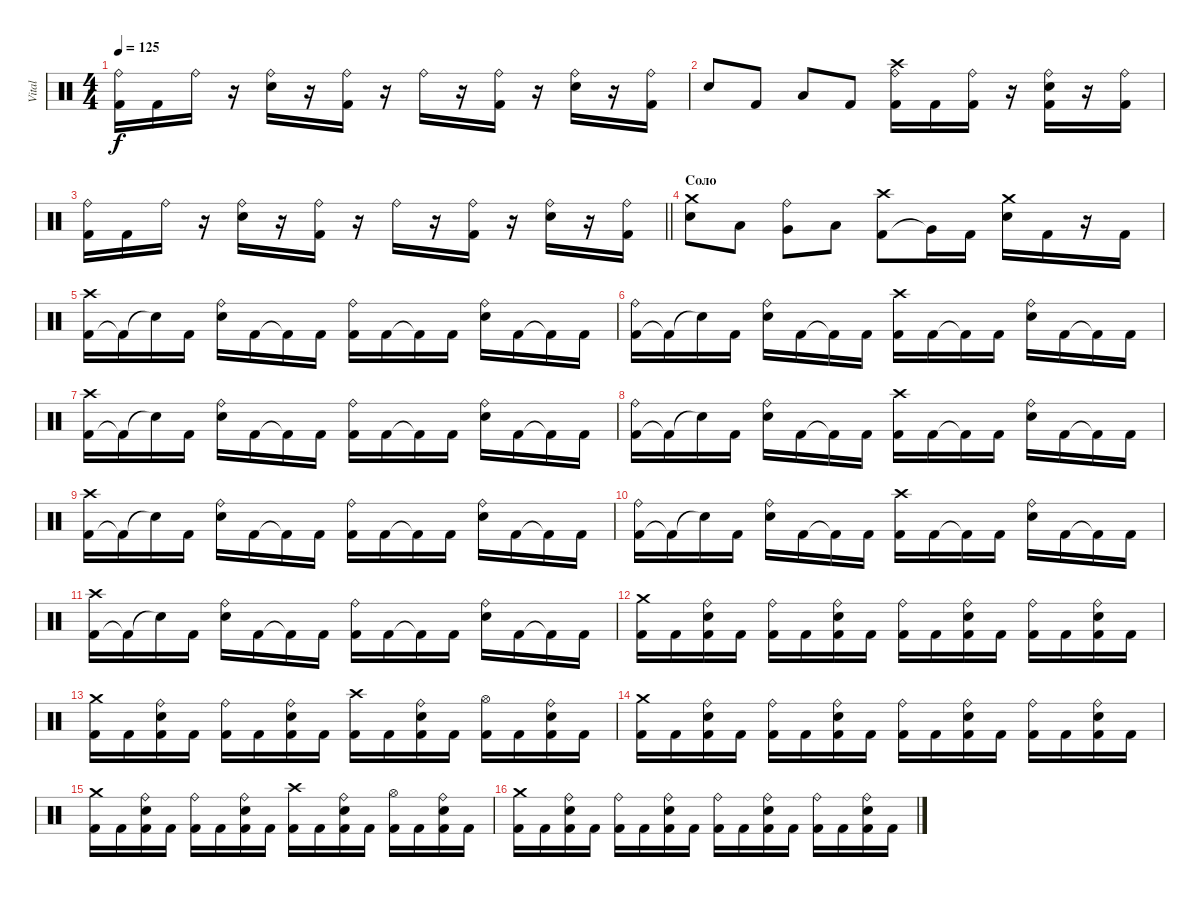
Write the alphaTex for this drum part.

\track ("Vital" "Vital") {instrument percussion}
\staff {score}
\articulation defaults
\ts (4 4)
\tempo 125
\clef neutral
\ks c
("Kick (hit) 2" "Ride (bell)").16{dy f} "Kick (hit) 2".16 "Ride (bell)".16 r.16 ("Snare (hit) 2" "Ride (bell)").16 r.16 ("Kick (hit) 2" "Ride (bell)").16 r.16 "Ride (bell)".16 r.16 ("Kick (hit) 2" "Ride (bell)").16 r.16 ("Snare (hit) 2" "Ride (bell)").16 r.16 ("Kick (hit) 2" "Ride (bell)").16 |
"Snare (hit) 2".8 "Kick (hit) 2".8 "Low Floor Tom (hit)".8 "Kick (hit) 2".8 ("Kick (hit) 2" "Crash high (hit)" "Ride (bell)").16 "Kick (hit) 2".16 ("Kick (hit) 2" "Ride (bell)").16 r.16 ("Kick (hit) 2" "Snare (hit) 2" "Ride (bell)").16 r.16 ("Kick (hit) 2" "Ride (bell)").16 |
\barLineRight lightlight
("Kick (hit) 2" "Ride (bell)").16 "Kick (hit) 2".16 "Ride (bell)".16 r.16 ("Snare (hit) 2" "Ride (bell)").16 r.16 ("Kick (hit) 2" "Ride (bell)").16 r.16 "Ride (bell)".16 r.16 ("Kick (hit) 2" "Ride (bell)").16 r.16 ("Snare (hit) 2" "Ride (bell)").16 r.16 ("Kick (hit) 2" "Ride (bell)").16 |
\section ("" "Соло")
("Snare (hit) 2" "Crash medium (hit)").8 "Low Tom (hit)".8 ("Very Low Tom (hit)" "Ride (bell)").8 "Low Floor Tom (hit)".8 ("Kick (hit) 2" "Crash high (hit)").8 "Very Low Tom (hit)"{t}.16 "Kick (hit) 2".16 ("Snare (hit) 2" "Crash medium (hit)").16 "Kick (hit) 2".16 r.16 "Kick (hit) 2".16 |
("Kick (hit) 2" "Crash high (hit)").16 "Kick (hit) 2"{t}.16 "Snare (hit)"{t}.16 "Kick (hit) 2".16 ("Snare (hit) 2" "Ride (bell)").16 "Kick (hit) 2".16 "Kick (hit) 2"{t}.16 "Kick (hit) 2".16 ("Kick (hit) 2" "Ride (bell)").16 "Kick (hit) 2".16 "Kick (hit) 2"{t}.16 "Kick (hit) 2".16 ("Snare (hit) 2" "Ride (bell)").16 "Kick (hit) 2".16 "Kick (hit) 2"{t}.16 "Kick (hit) 2".16 |
("Kick (hit) 2" "Ride (bell)").16 "Kick (hit) 2"{t}.16 "Snare (hit)"{t}.16 "Kick (hit) 2".16 ("Snare (hit) 2" "Ride (bell)").16 "Kick (hit) 2".16 "Kick (hit) 2"{t}.16 "Kick (hit) 2".16 ("Kick (hit) 2" "Crash high (hit)").16 "Kick (hit) 2".16 "Kick (hit) 2"{t}.16 "Kick (hit) 2".16 ("Snare (hit) 2" "Ride (bell)").16 "Kick (hit) 2".16 "Kick (hit) 2"{t}.16 "Kick (hit) 2".16 |
("Kick (hit) 2" "Crash high (hit)").16 "Kick (hit) 2"{t}.16 "Snare (hit)"{t}.16 "Kick (hit) 2".16 ("Snare (hit) 2" "Ride (bell)").16 "Kick (hit) 2".16 "Kick (hit) 2"{t}.16 "Kick (hit) 2".16 ("Kick (hit) 2" "Ride (bell)").16 "Kick (hit) 2".16 "Kick (hit) 2"{t}.16 "Kick (hit) 2".16 ("Snare (hit) 2" "Ride (bell)").16 "Kick (hit) 2".16 "Kick (hit) 2"{t}.16 "Kick (hit) 2".16 |
("Kick (hit) 2" "Ride (bell)").16 "Kick (hit) 2"{t}.16 "Snare (hit)"{t}.16 "Kick (hit) 2".16 ("Snare (hit) 2" "Ride (bell)").16 "Kick (hit) 2".16 "Kick (hit) 2"{t}.16 "Kick (hit) 2".16 ("Kick (hit) 2" "Crash high (hit)").16 "Kick (hit) 2".16 "Kick (hit) 2"{t}.16 "Kick (hit) 2".16 ("Snare (hit) 2" "Ride (bell)").16 "Kick (hit) 2".16 "Kick (hit) 2"{t}.16 "Kick (hit) 2".16 |
("Kick (hit) 2" "Crash high (hit)").16 "Kick (hit) 2"{t}.16 "Snare (hit)"{t}.16 "Kick (hit) 2".16 ("Snare (hit) 2" "Ride (bell)").16 "Kick (hit) 2".16 "Kick (hit) 2"{t}.16 "Kick (hit) 2".16 ("Kick (hit) 2" "Ride (bell)").16 "Kick (hit) 2".16 "Kick (hit) 2"{t}.16 "Kick (hit) 2".16 ("Snare (hit) 2" "Ride (bell)").16 "Kick (hit) 2".16 "Kick (hit) 2"{t}.16 "Kick (hit) 2".16 |
("Kick (hit) 2" "Ride (bell)").16 "Kick (hit) 2"{t}.16 "Snare (hit)"{t}.16 "Kick (hit) 2".16 ("Snare (hit) 2" "Ride (bell)").16 "Kick (hit) 2".16 "Kick (hit) 2"{t}.16 "Kick (hit) 2".16 ("Kick (hit) 2" "Crash high (hit)").16 "Kick (hit) 2".16 "Kick (hit) 2"{t}.16 "Kick (hit) 2".16 ("Snare (hit) 2" "Ride (bell)").16 "Kick (hit) 2".16 "Kick (hit) 2"{t}.16 "Kick (hit) 2".16 |
("Kick (hit) 2" "Crash high (hit)").16 "Kick (hit) 2"{t}.16 "Snare (hit)"{t}.16 "Kick (hit) 2".16 ("Snare (hit) 2" "Ride (bell)").16 "Kick (hit) 2".16 "Kick (hit) 2"{t}.16 "Kick (hit) 2".16 ("Kick (hit) 2" "Ride (bell)").16 "Kick (hit) 2".16 "Kick (hit) 2"{t}.16 "Kick (hit) 2".16 ("Snare (hit) 2" "Ride (bell)").16 "Kick (hit) 2".16 "Kick (hit) 2"{t}.16 "Kick (hit) 2".16 |
("Kick (hit) 2" "Crash medium (hit)").16 "Kick (hit) 2".16 ("Snare (hit) 2" "Kick (hit) 2" "Ride (bell)").16 "Kick (hit) 2".16 ("Kick (hit) 2" "Ride (bell)").16 "Kick (hit) 2".16 ("Snare (hit) 2" "Kick (hit) 2" "Ride (bell)").16 "Kick (hit) 2".16 ("Kick (hit) 2" "Ride (bell)").16 "Kick (hit) 2".16 ("Snare (hit) 2" "Kick (hit) 2" "Ride (bell)").16 "Kick (hit) 2".16 ("Kick (hit) 2" "Ride (bell)").16 "Kick (hit) 2".16 ("Kick (hit) 2" "Snare (hit) 2" "Ride (bell)").16 "Kick (hit) 2".16 |
("Kick (hit) 2" "Crash medium (hit)").16 "Kick (hit) 2".16 ("Snare (hit) 2" "Kick (hit) 2" "Ride (bell)").16 "Kick (hit) 2".16 ("Kick (hit) 2" "Ride (bell)").16 "Kick (hit) 2".16 ("Snare (hit) 2" "Kick (hit) 2" "Ride (bell)").16 "Kick (hit) 2".16 ("Kick (hit) 2" "Crash high (hit)").16 "Kick (hit) 2".16 ("Snare (hit) 2" "Kick (hit) 2" "Ride (bell)").16 "Kick (hit) 2".16 ("Kick (hit) 2" "Hi-Hat (open)").16 "Kick (hit) 2".16 ("Kick (hit) 2" "Snare (hit) 2" "Ride (bell)").16 "Kick (hit) 2".16 |
("Kick (hit) 2" "Crash medium (hit)").16 "Kick (hit) 2".16 ("Snare (hit) 2" "Kick (hit) 2" "Ride (bell)").16 "Kick (hit) 2".16 ("Kick (hit) 2" "Ride (bell)").16 "Kick (hit) 2".16 ("Snare (hit) 2" "Kick (hit) 2" "Ride (bell)").16 "Kick (hit) 2".16 ("Kick (hit) 2" "Ride (bell)").16 "Kick (hit) 2".16 ("Snare (hit) 2" "Kick (hit) 2" "Ride (bell)").16 "Kick (hit) 2".16 ("Kick (hit) 2" "Ride (bell)").16 "Kick (hit) 2".16 ("Kick (hit) 2" "Snare (hit) 2" "Ride (bell)").16 "Kick (hit) 2".16 |
("Kick (hit) 2" "Crash medium (hit)").16 "Kick (hit) 2".16 ("Snare (hit) 2" "Kick (hit) 2" "Ride (bell)").16 "Kick (hit) 2".16 ("Kick (hit) 2" "Ride (bell)").16 "Kick (hit) 2".16 ("Snare (hit) 2" "Kick (hit) 2" "Ride (bell)").16 "Kick (hit) 2".16 ("Kick (hit) 2" "Crash high (hit)").16 "Kick (hit) 2".16 ("Snare (hit) 2" "Kick (hit) 2" "Ride (bell)").16 "Kick (hit) 2".16 ("Kick (hit) 2" "Hi-Hat (open)").16 "Kick (hit) 2".16 ("Kick (hit) 2" "Snare (hit) 2" "Ride (bell)").16 "Kick (hit) 2".16 |
("Kick (hit) 2" "Crash medium (hit)").16 "Kick (hit) 2".16 ("Snare (hit) 2" "Kick (hit) 2" "Ride (bell)").16 "Kick (hit) 2".16 ("Kick (hit) 2" "Ride (bell)").16 "Kick (hit) 2".16 ("Snare (hit) 2" "Kick (hit) 2" "Ride (bell)").16 "Kick (hit) 2".16 ("Kick (hit) 2" "Ride (bell)").16 "Kick (hit) 2".16 ("Snare (hit) 2" "Kick (hit) 2" "Ride (bell)").16 "Kick (hit) 2".16 ("Kick (hit) 2" "Ride (bell)").16 "Kick (hit) 2".16 ("Kick (hit) 2" "Snare (hit) 2" "Ride (bell)").16 "Kick (hit) 2".16
